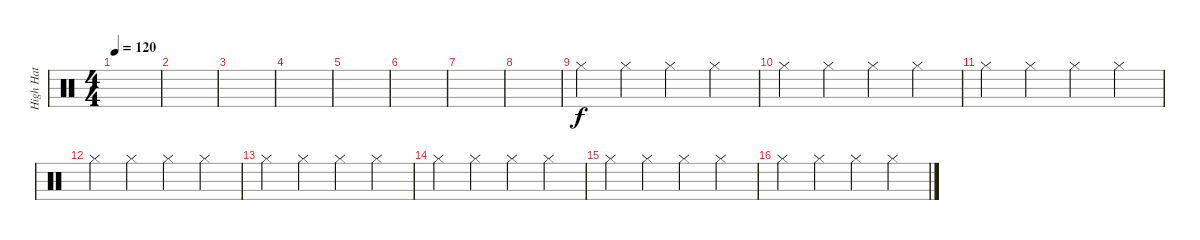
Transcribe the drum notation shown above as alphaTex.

\track ("High Hat" "High Hat") {instrument percussion}
\staff {score}
\articulation defaults
\ts (4 4)
\tempo 120
\clef neutral
\ks c
|
|
|
|
|
|
|
|
"Hi-Hat (closed)".4 "Hi-Hat (closed)".4 "Hi-Hat (closed)".4 "Hi-Hat (closed)".4 |
"Hi-Hat (closed)".4 "Hi-Hat (closed)".4 "Hi-Hat (closed)".4 "Hi-Hat (closed)".4 |
"Hi-Hat (closed)".4 "Hi-Hat (closed)".4 "Hi-Hat (closed)".4 "Hi-Hat (closed)".4 |
"Hi-Hat (closed)".4 "Hi-Hat (closed)".4 "Hi-Hat (closed)".4 "Hi-Hat (closed)".4 |
"Hi-Hat (closed)".4 "Hi-Hat (closed)".4 "Hi-Hat (closed)".4 "Hi-Hat (closed)".4 |
"Hi-Hat (closed)".4 "Hi-Hat (closed)".4 "Hi-Hat (closed)".4 "Hi-Hat (closed)".4 |
"Hi-Hat (closed)".4 "Hi-Hat (closed)".4 "Hi-Hat (closed)".4 "Hi-Hat (closed)".4 |
"Hi-Hat (closed)".4 "Hi-Hat (closed)".4 "Hi-Hat (closed)".4 "Hi-Hat (closed)".4
